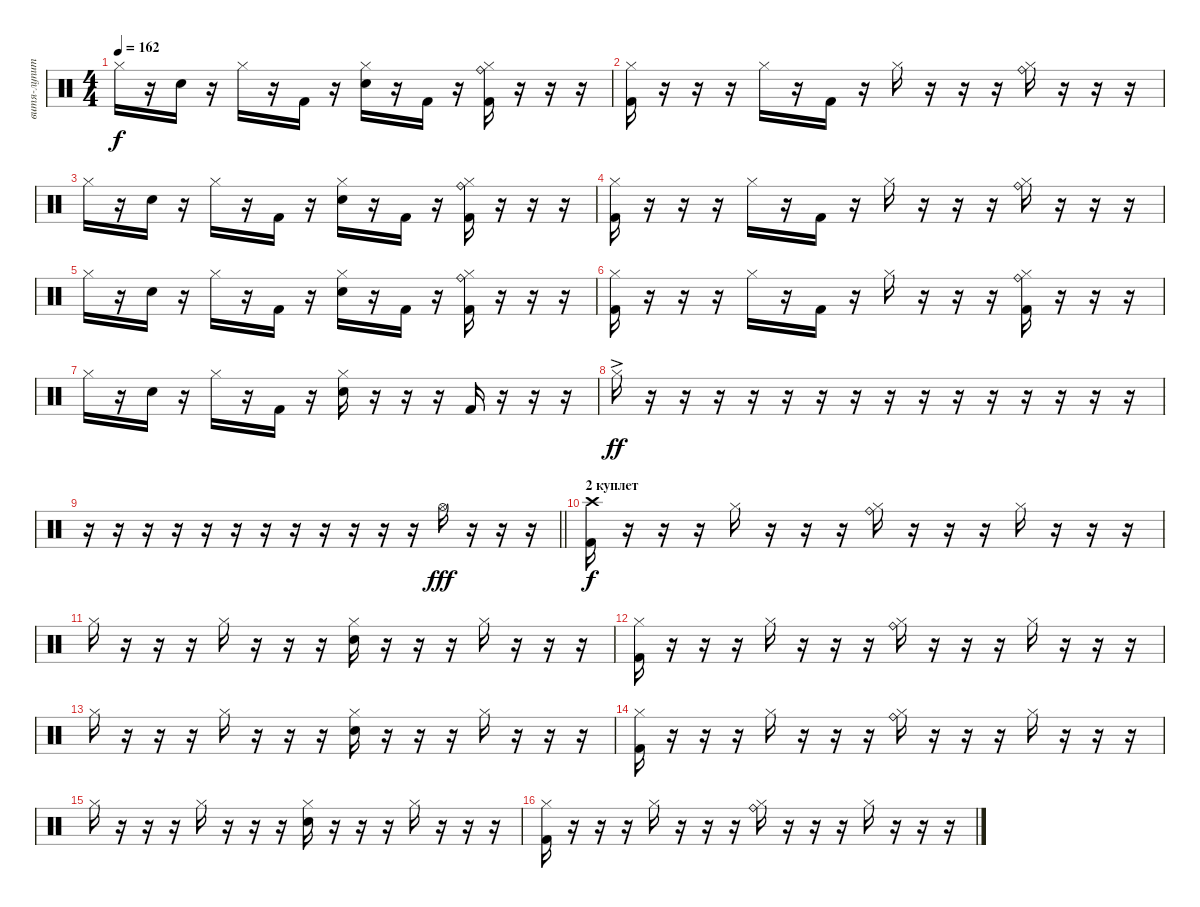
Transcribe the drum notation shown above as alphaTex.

\track ("витя-лупит" "витя-лупит") {instrument percussion}
\staff {score}
\articulation defaults
\ts (4 4)
\tempo 162
\clef neutral
\ks c "Hi-Hat (closed)".16{dy f}
r.16 "Snare (hit) 2".16 r.16 "Hi-Hat (closed)".16 r.16 "Kick (hit) 2".16 r.16 ("Snare (hit) 2" "Hi-Hat (closed)").16 r.16 "Kick (hit) 2".16 r.16 ("Kick (hit) 2" "Ride (bell)" "Hi-Hat (closed)").16 r.16 r.16 r.16 |
("Kick (hit) 2" "Hi-Hat (closed)").16 r.16 r.16 r.16 "Hi-Hat (closed)".16 r.16 "Kick (hit) 2".16 r.16 "Hi-Hat (closed)".16 r.16 r.16 r.16 ("Ride (bell)" "Hi-Hat (closed)").16 r.16 r.16 r.16 |
"Hi-Hat (closed)".16 r.16 "Snare (hit) 2".16 r.16 "Hi-Hat (closed)".16 r.16 "Kick (hit) 2".16 r.16 ("Snare (hit) 2" "Hi-Hat (closed)").16 r.16 "Kick (hit) 2".16 r.16 ("Kick (hit) 2" "Ride (bell)" "Hi-Hat (closed)").16 r.16 r.16 r.16 |
("Kick (hit) 2" "Hi-Hat (closed)").16 r.16 r.16 r.16 "Hi-Hat (closed)".16 r.16 "Kick (hit) 2".16 r.16 "Hi-Hat (closed)".16 r.16 r.16 r.16 ("Ride (bell)" "Hi-Hat (closed)").16 r.16 r.16 r.16 |
"Hi-Hat (closed)".16 r.16 "Snare (hit) 2".16 r.16 "Hi-Hat (closed)".16 r.16 "Kick (hit) 2".16 r.16 ("Snare (hit) 2" "Hi-Hat (closed)").16 r.16 "Kick (hit) 2".16 r.16 ("Kick (hit) 2" "Ride (bell)" "Hi-Hat (closed)").16 r.16 r.16 r.16 |
("Kick (hit) 2" "Hi-Hat (closed)").16 r.16 r.16 r.16 "Hi-Hat (closed)".16 r.16 "Kick (hit) 2".16 r.16 "Hi-Hat (closed)".16 r.16 r.16 r.16 ("Kick (hit) 2" "Ride (bell)" "Hi-Hat (closed)").16 r.16 r.16 r.16 |
"Hi-Hat (closed)".16 r.16 "Snare (hit) 2".16 r.16 "Hi-Hat (closed)".16 r.16 "Kick (hit) 2".16 r.16 ("Snare (hit) 2" "Hi-Hat (closed)").16 r.16 r.16 r.16 "Kick (hit) 2".16 r.16 r.16 r.16 |
"Hi-Hat (closed)"{ac}.16{dy ff} r.16 r.16 r.16 r.16 r.16 r.16 r.16 r.16 r.16 r.16 r.16 r.16 r.16 r.16 r.16{volume 0} |
\barLineRight lightlight
r.16 r.16 r.16 r.16 r.16 r.16 r.16 r.16 r.16 r.16 r.16 r.16 "Hi-Hat (open)".16{dy fff volume 16} r.16 r.16 r.16 |
\section ("" "2 куплет")
("Crash high (hit)" "Kick (hit) 2").16{dy f} r.16 r.16 r.16 "Hi-Hat (closed)".16 r.16 r.16 r.16 ("Ride (bell)" "Hi-Hat (closed)").16 r.16 r.16 r.16 "Hi-Hat (closed)".16 r.16 r.16 r.16 |
"Hi-Hat (closed)".16 r.16 r.16 r.16 "Hi-Hat (closed)".16 r.16 r.16 r.16 ("Snare (hit) 2" "Hi-Hat (closed)").16 r.16 r.16 r.16 "Hi-Hat (closed)".16 r.16 r.16 r.16 |
("Kick (hit) 2" "Hi-Hat (closed)").16 r.16 r.16 r.16 "Hi-Hat (closed)".16 r.16 r.16 r.16 ("Ride (bell)" "Hi-Hat (closed)").16 r.16 r.16 r.16 "Hi-Hat (closed)".16 r.16 r.16 r.16 |
"Hi-Hat (closed)".16 r.16 r.16 r.16 "Hi-Hat (closed)".16 r.16 r.16 r.16 ("Snare (hit) 2" "Hi-Hat (closed)").16 r.16 r.16 r.16 "Hi-Hat (closed)".16 r.16 r.16 r.16 |
("Kick (hit) 2" "Hi-Hat (closed)").16 r.16 r.16 r.16 "Hi-Hat (closed)".16 r.16 r.16 r.16 ("Ride (bell)" "Hi-Hat (closed)").16 r.16 r.16 r.16 "Hi-Hat (closed)".16 r.16 r.16 r.16 |
"Hi-Hat (closed)".16 r.16 r.16 r.16 "Hi-Hat (closed)".16 r.16 r.16 r.16 ("Snare (hit) 2" "Hi-Hat (closed)").16 r.16 r.16 r.16 "Hi-Hat (closed)".16 r.16 r.16 r.16 |
("Kick (hit) 2" "Hi-Hat (closed)").16 r.16 r.16 r.16 "Hi-Hat (closed)".16 r.16 r.16 r.16 ("Ride (bell)" "Hi-Hat (closed)").16 r.16 r.16 r.16 "Hi-Hat (closed)".16 r.16 r.16 r.16
